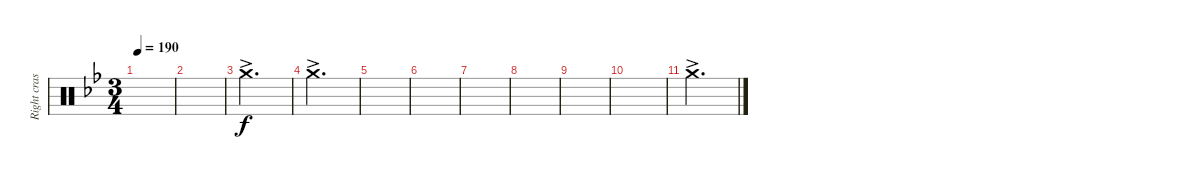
\track ("Right crash" "Right cras") {instrument percussion}
\staff {score}
\articulation defaults
\ts (3 4)
\tempo 190
\clef neutral
\ks bb
|
|
"Crash medium (hit)"{ac}.2{d} |
"Crash medium (hit)"{ac}.2{d} |
|
|
|
|
|
|
"Crash medium (hit)"{ac}.2{d}
